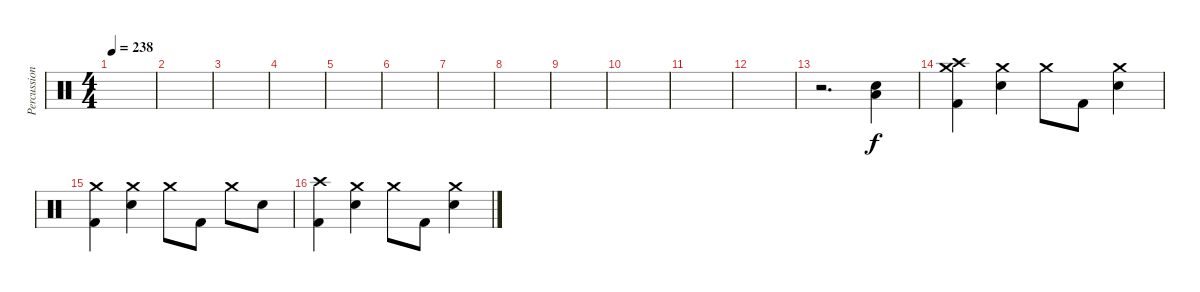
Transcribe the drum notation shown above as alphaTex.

\track ("Percussion" "Percussion") {instrument percussion}
\staff {score}
\articulation defaults
\ts (4 4)
\tempo 238
\clef neutral
\ks c
|
|
|
|
|
|
|
|
|
|
|
|
r.2{d} ("Electric Snare (hit)" "Low Floor Tom (hit)").4 |
("Crash high (hit)" "Crash medium (hit)" "Kick (hit) 2").4 ("Crash medium (hit)" "Electric Snare (hit)").4 "Crash medium (hit)".8 "Kick (hit) 2".8 ("Crash medium (hit)" "Electric Snare (hit)").4 |
("Crash medium (hit)" "Kick (hit) 2").4 ("Crash medium (hit)" "Electric Snare (hit)").4 "Crash medium (hit)".8 "Kick (hit) 2".8 "Crash medium (hit)".8 "Electric Snare (hit)".8 |
("Crash high (hit)" "Kick (hit) 2").4 ("Crash medium (hit)" "Electric Snare (hit)").4 "Crash medium (hit)".8 "Kick (hit) 2".8 ("Crash medium (hit)" "Electric Snare (hit)").4
